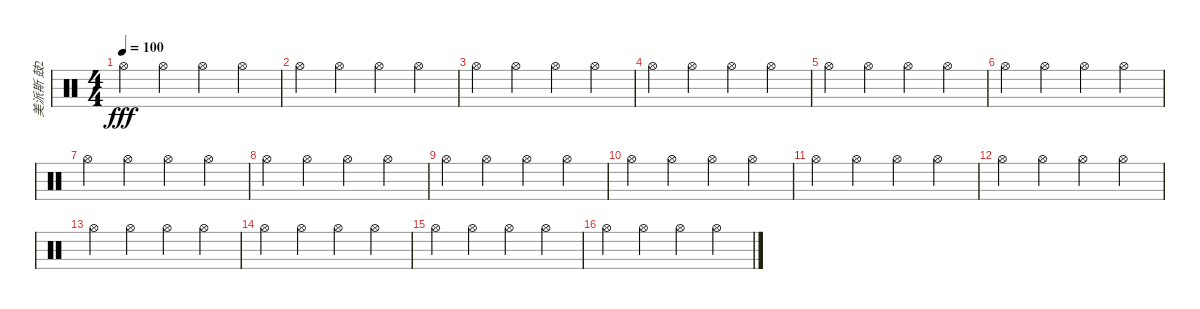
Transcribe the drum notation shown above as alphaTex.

\track ("美派斯 鼓2" "美派斯 鼓2") {instrument percussion}
\staff {score}
\articulation defaults
\ts (4 4)
\tempo 100
\clef neutral
\ks c "Hi-Hat (open)".4{dy fff} "Hi-Hat (open)".4 "Hi-Hat (open)".4 "Hi-Hat (open)".4
|
"Hi-Hat (open)".4 "Hi-Hat (open)".4 "Hi-Hat (open)".4 "Hi-Hat (open)".4 |
"Hi-Hat (open)".4 "Hi-Hat (open)".4 "Hi-Hat (open)".4 "Hi-Hat (open)".4 |
"Hi-Hat (open)".4 "Hi-Hat (open)".4 "Hi-Hat (open)".4 "Hi-Hat (open)".4 |
"Hi-Hat (open)".4 "Hi-Hat (open)".4 "Hi-Hat (open)".4 "Hi-Hat (open)".4 |
"Hi-Hat (open)".4 "Hi-Hat (open)".4 "Hi-Hat (open)".4 "Hi-Hat (open)".4 |
"Hi-Hat (open)".4 "Hi-Hat (open)".4 "Hi-Hat (open)".4 "Hi-Hat (open)".4 |
"Hi-Hat (open)".4 "Hi-Hat (open)".4 "Hi-Hat (open)".4 "Hi-Hat (open)".4 |
"Hi-Hat (open)".4 "Hi-Hat (open)".4 "Hi-Hat (open)".4 "Hi-Hat (open)".4 |
"Hi-Hat (open)".4 "Hi-Hat (open)".4 "Hi-Hat (open)".4 "Hi-Hat (open)".4 |
"Hi-Hat (open)".4 "Hi-Hat (open)".4 "Hi-Hat (open)".4 "Hi-Hat (open)".4 |
"Hi-Hat (open)".4 "Hi-Hat (open)".4 "Hi-Hat (open)".4 "Hi-Hat (open)".4 |
"Hi-Hat (open)".4 "Hi-Hat (open)".4 "Hi-Hat (open)".4 "Hi-Hat (open)".4 |
"Hi-Hat (open)".4 "Hi-Hat (open)".4 "Hi-Hat (open)".4 "Hi-Hat (open)".4 |
"Hi-Hat (open)".4 "Hi-Hat (open)".4 "Hi-Hat (open)".4 "Hi-Hat (open)".4 |
"Hi-Hat (open)".4 "Hi-Hat (open)".4 "Hi-Hat (open)".4 "Hi-Hat (open)".4
